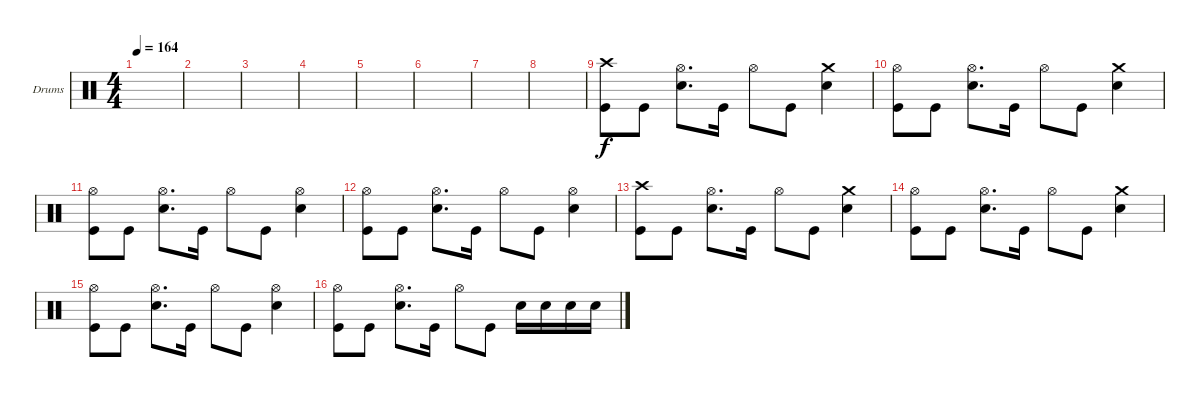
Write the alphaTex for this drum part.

\defaultSystemsLayout 4
\bracketExtendMode groupsimilarinstruments
\firstSystemTrackNameOrientation horizontal
\otherSystemsTrackNameOrientation horizontal
\track ("Drumkit" "Drums") {instrument percussion}
\staff {score}
\articulation defaults
\ts (4 4)
\tempo 164
\clef neutral
\ks c
|
|
|
|
|
|
|
|
("Kick (hit)" "Crash high (hit)").8 "Kick (hit)".8 ("Snare (hit) 2" "Hi-Hat (open)").8{d} "Kick (hit)".16 "Hi-Hat (open)".8 "Kick (hit)".8 ("Snare (hit) 2" "Crash medium (hit)").4 |
("Kick (hit)" "Hi-Hat (open)").8 "Kick (hit)".8 ("Snare (hit) 2" "Hi-Hat (open)").8{d} "Kick (hit)".16 "Hi-Hat (open)".8 "Kick (hit)".8 ("Snare (hit) 2" "Crash medium (hit)").4 |
("Kick (hit)" "Hi-Hat (open)").8 "Kick (hit)".8 ("Snare (hit) 2" "Hi-Hat (open)").8{d} "Kick (hit)".16 "Hi-Hat (open)".8 "Kick (hit)".8 ("Snare (hit) 2" "Hi-Hat (open)").4 |
("Kick (hit)" "Hi-Hat (open)").8 "Kick (hit)".8 ("Snare (hit) 2" "Hi-Hat (open)").8{d} "Kick (hit)".16 "Hi-Hat (open)".8 "Kick (hit)".8 ("Snare (hit) 2" "Hi-Hat (open)").4 |
("Kick (hit)" "Crash high (hit)").8 "Kick (hit)".8 ("Snare (hit) 2" "Hi-Hat (open)").8{d} "Kick (hit)".16 "Hi-Hat (open)".8 "Kick (hit)".8 ("Snare (hit) 2" "Crash medium (hit)").4 |
("Kick (hit)" "Hi-Hat (open)").8 "Kick (hit)".8 ("Snare (hit) 2" "Hi-Hat (open)").8{d} "Kick (hit)".16 "Hi-Hat (open)".8 "Kick (hit)".8 ("Snare (hit) 2" "Crash medium (hit)").4 |
("Kick (hit)" "Hi-Hat (open)").8 "Kick (hit)".8 ("Snare (hit) 2" "Hi-Hat (open)").8{d} "Kick (hit)".16 "Hi-Hat (open)".8 "Kick (hit)".8 ("Snare (hit) 2" "Hi-Hat (open)").4 |
("Kick (hit)" "Hi-Hat (open)").8 "Kick (hit)".8 ("Snare (hit) 2" "Hi-Hat (open)").8{d} "Kick (hit)".16 "Hi-Hat (open)".8 "Kick (hit)".8 "Snare (hit) 2".16 "Snare (hit) 2".16 "Snare (hit) 2".16 "Snare (hit) 2".16
